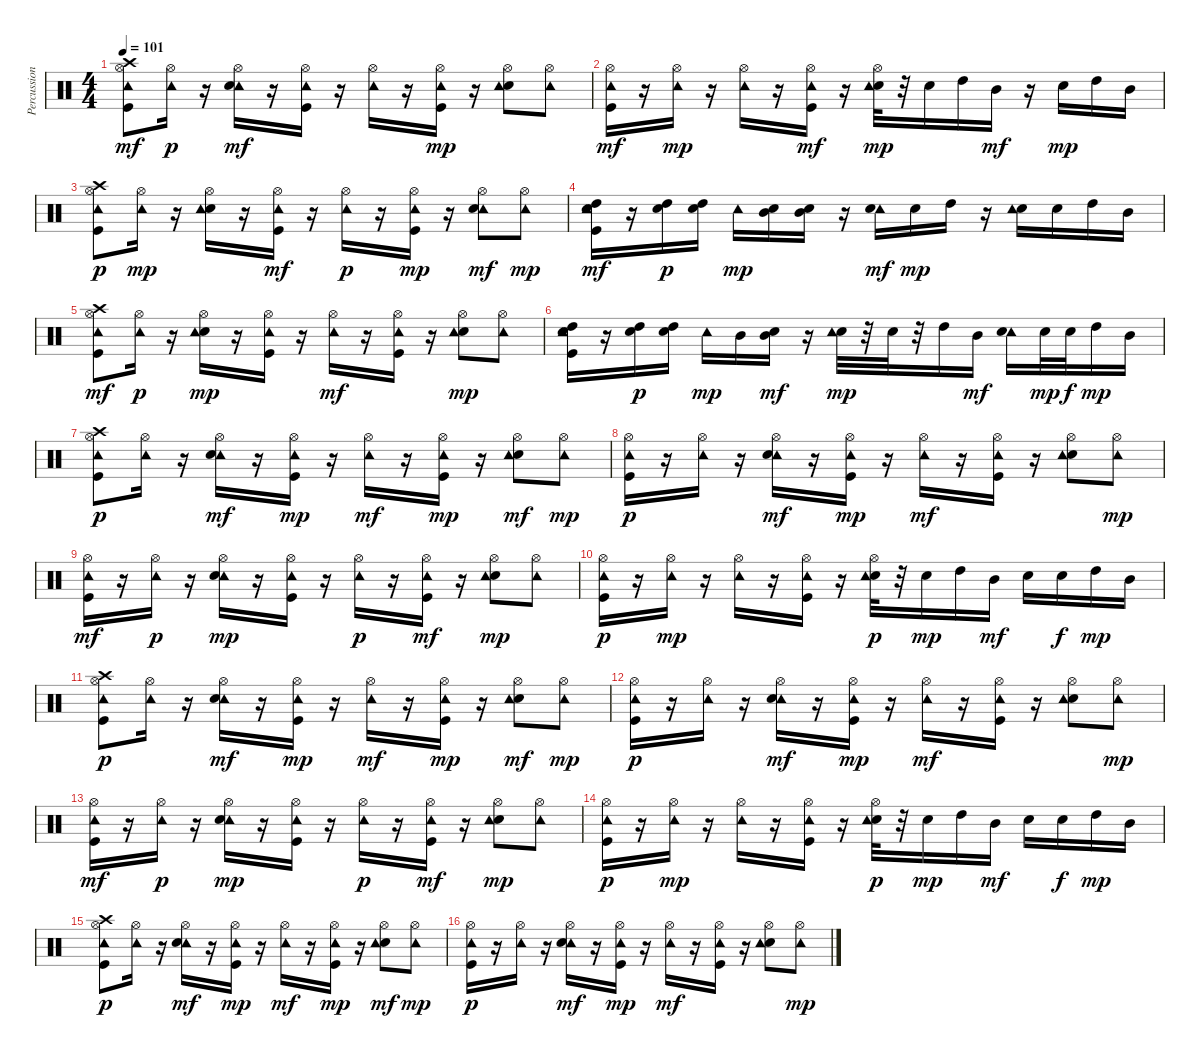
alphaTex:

\track ("Percussion" "Percussion") {instrument percussion}
\staff {score}
\articulation defaults
\ts (4 4)
\tempo 101
\clef neutral
\ks c
("Hi-Hat (open)" "Crash high (hit)" "Tambourine (hit)" "Kick (hit)").8{dy mf} ("Hi-Hat (open)" "Tambourine (hit)").16{dy p} r.16 ("Tambourine (hit)" "Electric Snare (hit)" "Hi-Hat (open)").16{dy mf} r.16 ("Tambourine (hit)" "Hi-Hat (open)" "Kick (hit)").16 r.16 ("Tambourine (hit)" "Hi-Hat (open)").16 r.16 ("Tambourine (hit)" "Kick (hit)" "Hi-Hat (open)").16{dy mp} r.16 ("Electric Snare (hit)" "Hi-Hat (open)" "Tambourine (hit)").8 ("Tambourine (hit)" "Hi-Hat (open)").8 |
("Tambourine (hit)" "Hi-Hat (open)" "Kick (hit)").16{dy mf} r.16 ("Tambourine (hit)" "Hi-Hat (open)").16{dy mp} r.16 ("Tambourine (hit)" "Hi-Hat (open)").16 r.16 ("Hi-Hat (open)" "Tambourine (hit)" "Kick (hit)").16{dy mf} r.16 ("Electric Snare (hit)" "Tambourine (hit)" "Hi-Hat (open)").32{dy mp} r.32 "Electric Snare (hit)".16 "High Tom (hit)".16 "Mid Tom (hit)".16{dy mf} r.16 "Electric Snare (hit)".16{dy mp} "High Tom (hit)".16 "Mid Tom (hit)".16 |
("Kick (hit)" "Crash high (hit)" "Hi-Hat (open)" "Tambourine (hit)").8{dy p} ("Tambourine (hit)" "Hi-Hat (open)").16{dy mp} r.16 ("Electric Snare (hit)" "Hi-Hat (open)" "Tambourine (hit)").16 r.16 ("Hi-Hat (open)" "Tambourine (hit)" "Kick (hit)").16{dy mf} r.16 ("Hi-Hat (open)" "Tambourine (hit)").16{dy p} r.16 ("Tambourine (hit)" "Kick (hit)" "Hi-Hat (open)").16{dy mp} r.16 ("Tambourine (hit)" "Electric Snare (hit)" "Hi-Hat (open)").8{dy mf} ("Tambourine (hit)" "Hi-Hat (open)").8{dy mp} |
("Kick (hit)" "Electric Snare (hit)" "Tambourine (hit)" "High Tom (hit)").16{dy mf} r.16 ("High Tom (hit)" "Electric Snare (hit)").16{dy p} ("High Tom (hit)" "Electric Snare (hit)").16 "Tambourine (hit)".16{dy mp} ("Electric Snare (hit)" "Mid Tom (hit)").16 ("Mid Tom (hit)" "Electric Snare (hit)").16 r.16 ("Tambourine (hit)" "Electric Snare (hit)").16{dy mf} "Electric Snare (hit)".16{dy mp} "High Tom (hit)".16 r.16 ("Electric Snare (hit)" "Tambourine (hit)").16 "Electric Snare (hit)".16 "High Tom (hit)".16 "Mid Tom (hit)".16 |
("Crash high (hit)" "Tambourine (hit)" "Kick (hit)" "Hi-Hat (open)").8{dy mf} ("Hi-Hat (open)" "Tambourine (hit)").16{dy p} r.16 ("Hi-Hat (open)" "Electric Snare (hit)" "Tambourine (hit)").16{dy mp} r.16 ("Tambourine (hit)" "Kick (hit)" "Hi-Hat (open)").16 r.16 ("Tambourine (hit)" "Hi-Hat (open)").16{dy mf} r.16 ("Tambourine (hit)" "Hi-Hat (open)" "Kick (hit)").16 r.16 ("Electric Snare (hit)" "Hi-Hat (open)" "Tambourine (hit)").8{dy mp} ("Hi-Hat (open)" "Tambourine (hit)").8 |
("Electric Snare (hit)" "High Tom (hit)" "Kick (hit)" "Tambourine (hit)").16 r.16 ("High Tom (hit)" "Electric Snare (hit)").16{dy p} ("High Tom (hit)" "Electric Snare (hit)").16 "Tambourine (hit)".16{dy mp} "Mid Tom (hit)".16 ("Electric Snare (hit)" "Mid Tom (hit)").16{dy mf} r.16 ("Electric Snare (hit)" "Tambourine (hit)").32{dy mp} r.32 "Electric Snare (hit)".32 r.32 "High Tom (hit)".16 "Mid Tom (hit)".16{dy mf} ("Tambourine (hit)" "Electric Snare (hit)").16 "Electric Snare (hit)".32{dy mp} "Electric Snare (hit)".32{dy f} "High Tom (hit)".16{dy mp} "Mid Tom (hit)".16 |
("Crash high (hit)" "Kick (hit)" "Hi-Hat (open)" "Tambourine (hit)").8{dy p} ("Hi-Hat (open)" "Tambourine (hit)").16 r.16 ("Tambourine (hit)" "Electric Snare (hit)" "Hi-Hat (open)").16{dy mf} r.16 ("Kick (hit)" "Hi-Hat (open)" "Tambourine (hit)").16{dy mp} r.16 ("Tambourine (hit)" "Hi-Hat (open)").16{dy mf} r.16 ("Kick (hit)" "Tambourine (hit)" "Hi-Hat (open)").16{dy mp} r.16 ("Electric Snare (hit)" "Tambourine (hit)" "Hi-Hat (open)").8{dy mf} ("Tambourine (hit)" "Hi-Hat (open)").8{dy mp} |
("Kick (hit)" "Hi-Hat (open)" "Tambourine (hit)").16{dy p} r.16 ("Hi-Hat (open)" "Tambourine (hit)").16 r.16 ("Tambourine (hit)" "Electric Snare (hit)" "Hi-Hat (open)").16{dy mf} r.16 ("Kick (hit)" "Hi-Hat (open)" "Tambourine (hit)").16{dy mp} r.16 ("Tambourine (hit)" "Hi-Hat (open)").16{dy mf} r.16 ("Tambourine (hit)" "Hi-Hat (open)" "Kick (hit)").16 r.16 ("Electric Snare (hit)" "Tambourine (hit)" "Hi-Hat (open)").8 ("Tambourine (hit)" "Hi-Hat (open)").8{dy mp} |
("Hi-Hat (open)" "Tambourine (hit)" "Kick (hit)").16{dy mf} r.16 ("Hi-Hat (open)" "Tambourine (hit)").16{dy p} r.16 ("Tambourine (hit)" "Hi-Hat (open)" "Electric Snare (hit)").16{dy mp} r.16 ("Hi-Hat (open)" "Kick (hit)" "Tambourine (hit)").16 r.16 ("Hi-Hat (open)" "Tambourine (hit)").16{dy p} r.16 ("Tambourine (hit)" "Hi-Hat (open)" "Kick (hit)").16{dy mf} r.16 ("Electric Snare (hit)" "Hi-Hat (open)" "Tambourine (hit)").8{dy mp} ("Tambourine (hit)" "Hi-Hat (open)").8 |
("Hi-Hat (open)" "Kick (hit)" "Tambourine (hit)").16{dy p} r.16 ("Tambourine (hit)" "Hi-Hat (open)").16{dy mp} r.16 ("Tambourine (hit)" "Hi-Hat (open)").16 r.16 ("Tambourine (hit)" "Kick (hit)" "Hi-Hat (open)").16 r.16 ("Electric Snare (hit)" "Hi-Hat (open)" "Tambourine (hit)").32{dy p} r.32 "Electric Snare (hit)".16{dy mp} "High Tom (hit)".16 "Mid Tom (hit)".16{dy mf} "Electric Snare (hit)".16 "Electric Snare (hit)".16{dy f} "High Tom (hit)".16{dy mp} "Mid Tom (hit)".16 |
("Crash high (hit)" "Kick (hit)" "Hi-Hat (open)" "Tambourine (hit)").8{dy p} ("Hi-Hat (open)" "Tambourine (hit)").16 r.16 ("Tambourine (hit)" "Electric Snare (hit)" "Hi-Hat (open)").16{dy mf} r.16 ("Kick (hit)" "Hi-Hat (open)" "Tambourine (hit)").16{dy mp} r.16 ("Tambourine (hit)" "Hi-Hat (open)").16{dy mf} r.16 ("Kick (hit)" "Tambourine (hit)" "Hi-Hat (open)").16{dy mp} r.16 ("Electric Snare (hit)" "Tambourine (hit)" "Hi-Hat (open)").8{dy mf} ("Tambourine (hit)" "Hi-Hat (open)").8{dy mp} |
("Kick (hit)" "Hi-Hat (open)" "Tambourine (hit)").16{dy p} r.16 ("Hi-Hat (open)" "Tambourine (hit)").16 r.16 ("Tambourine (hit)" "Electric Snare (hit)" "Hi-Hat (open)").16{dy mf} r.16 ("Kick (hit)" "Hi-Hat (open)" "Tambourine (hit)").16{dy mp} r.16 ("Tambourine (hit)" "Hi-Hat (open)").16{dy mf} r.16 ("Tambourine (hit)" "Hi-Hat (open)" "Kick (hit)").16 r.16 ("Electric Snare (hit)" "Tambourine (hit)" "Hi-Hat (open)").8 ("Tambourine (hit)" "Hi-Hat (open)").8{dy mp} |
("Hi-Hat (open)" "Tambourine (hit)" "Kick (hit)").16{dy mf} r.16 ("Hi-Hat (open)" "Tambourine (hit)").16{dy p} r.16 ("Tambourine (hit)" "Hi-Hat (open)" "Electric Snare (hit)").16{dy mp} r.16 ("Hi-Hat (open)" "Kick (hit)" "Tambourine (hit)").16 r.16 ("Hi-Hat (open)" "Tambourine (hit)").16{dy p} r.16 ("Tambourine (hit)" "Hi-Hat (open)" "Kick (hit)").16{dy mf} r.16 ("Electric Snare (hit)" "Hi-Hat (open)" "Tambourine (hit)").8{dy mp} ("Tambourine (hit)" "Hi-Hat (open)").8 |
("Hi-Hat (open)" "Kick (hit)" "Tambourine (hit)").16{dy p} r.16 ("Tambourine (hit)" "Hi-Hat (open)").16{dy mp} r.16 ("Tambourine (hit)" "Hi-Hat (open)").16 r.16 ("Tambourine (hit)" "Kick (hit)" "Hi-Hat (open)").16 r.16 ("Electric Snare (hit)" "Hi-Hat (open)" "Tambourine (hit)").32{dy p} r.32 "Electric Snare (hit)".16{dy mp} "High Tom (hit)".16 "Mid Tom (hit)".16{dy mf} "Electric Snare (hit)".16 "Electric Snare (hit)".16{dy f} "High Tom (hit)".16{dy mp} "Mid Tom (hit)".16 |
("Crash high (hit)" "Kick (hit)" "Hi-Hat (open)" "Tambourine (hit)").8{dy p} ("Hi-Hat (open)" "Tambourine (hit)").16 r.16 ("Tambourine (hit)" "Electric Snare (hit)" "Hi-Hat (open)").16{dy mf} r.16 ("Kick (hit)" "Hi-Hat (open)" "Tambourine (hit)").16{dy mp} r.16 ("Tambourine (hit)" "Hi-Hat (open)").16{dy mf} r.16 ("Kick (hit)" "Tambourine (hit)" "Hi-Hat (open)").16{dy mp} r.16 ("Electric Snare (hit)" "Tambourine (hit)" "Hi-Hat (open)").8{dy mf} ("Tambourine (hit)" "Hi-Hat (open)").8{dy mp} |
("Kick (hit)" "Hi-Hat (open)" "Tambourine (hit)").16{dy p} r.16 ("Hi-Hat (open)" "Tambourine (hit)").16 r.16 ("Tambourine (hit)" "Electric Snare (hit)" "Hi-Hat (open)").16{dy mf} r.16 ("Kick (hit)" "Hi-Hat (open)" "Tambourine (hit)").16{dy mp} r.16 ("Tambourine (hit)" "Hi-Hat (open)").16{dy mf} r.16 ("Tambourine (hit)" "Hi-Hat (open)" "Kick (hit)").16 r.16 ("Electric Snare (hit)" "Tambourine (hit)" "Hi-Hat (open)").8 ("Tambourine (hit)" "Hi-Hat (open)").8{dy mp}
